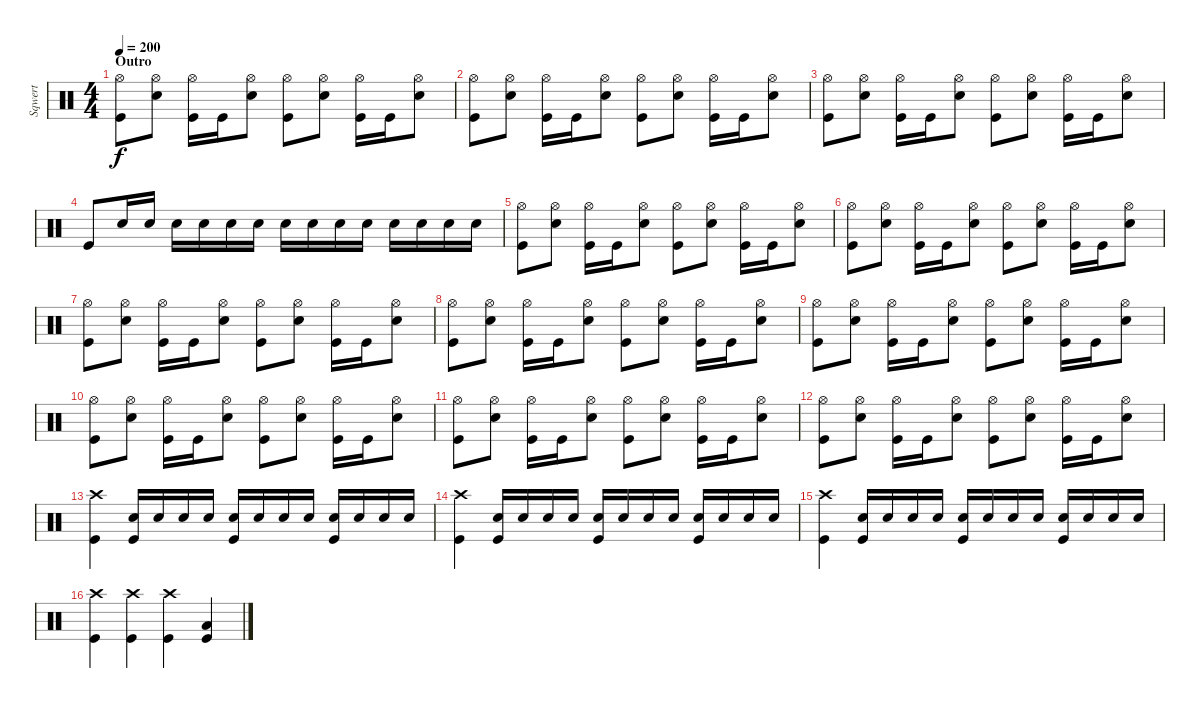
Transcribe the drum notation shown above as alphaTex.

\track ("Sqwert" "Sqwert") {instrument percussion}
\staff {score}
\articulation defaults
\ts (4 4)
\section ("" "Outro")
\tempo 200
\clef neutral
\ks c
("Hi-Hat (open)" "Kick (hit)").8{dy f} ("Hi-Hat (open)" "Snare (hit) 2").8 ("Hi-Hat (open)" "Kick (hit)").16 "Kick (hit)".16 ("Hi-Hat (open)" "Snare (hit) 2").8 ("Hi-Hat (open)" "Kick (hit)").8 ("Hi-Hat (open)" "Snare (hit) 2").8 ("Hi-Hat (open)" "Kick (hit)").16 "Kick (hit)".16 ("Hi-Hat (open)" "Snare (hit) 2").8 |
("Hi-Hat (open)" "Kick (hit)").8 ("Hi-Hat (open)" "Snare (hit) 2").8 ("Hi-Hat (open)" "Kick (hit)").16 "Kick (hit)".16 ("Hi-Hat (open)" "Snare (hit) 2").8 ("Hi-Hat (open)" "Kick (hit)").8 ("Hi-Hat (open)" "Snare (hit) 2").8 ("Hi-Hat (open)" "Kick (hit)").16 "Kick (hit)".16 ("Hi-Hat (open)" "Snare (hit) 2").8 |
("Hi-Hat (open)" "Kick (hit)").8 ("Hi-Hat (open)" "Snare (hit) 2").8 ("Hi-Hat (open)" "Kick (hit)").16 "Kick (hit)".16 ("Hi-Hat (open)" "Snare (hit) 2").8 ("Hi-Hat (open)" "Kick (hit)").8 ("Hi-Hat (open)" "Snare (hit) 2").8 ("Hi-Hat (open)" "Kick (hit)").16 "Kick (hit)".16 ("Hi-Hat (open)" "Snare (hit) 2").8 |
"Kick (hit)".8 "Snare (hit) 2".16 "Snare (hit) 2".16 "Snare (hit) 2".16 "Snare (hit) 2".16 "Snare (hit) 2".16 "Snare (hit) 2".16 "Snare (hit) 2".16 "Snare (hit) 2".16 "Snare (hit) 2".16 "Snare (hit) 2".16 "Snare (hit) 2".16 "Snare (hit) 2".16 "Snare (hit) 2".16 "Snare (hit) 2".16 |
("Hi-Hat (open)" "Kick (hit)").8 ("Hi-Hat (open)" "Snare (hit) 2").8 ("Hi-Hat (open)" "Kick (hit)").16 "Kick (hit)".16 ("Hi-Hat (open)" "Snare (hit) 2").8 ("Hi-Hat (open)" "Kick (hit)").8 ("Hi-Hat (open)" "Snare (hit) 2").8 ("Hi-Hat (open)" "Kick (hit)").16 "Kick (hit)".16 ("Hi-Hat (open)" "Snare (hit) 2").8 |
("Hi-Hat (open)" "Kick (hit)").8 ("Hi-Hat (open)" "Snare (hit) 2").8 ("Hi-Hat (open)" "Kick (hit)").16 "Kick (hit)".16 ("Hi-Hat (open)" "Snare (hit) 2").8 ("Hi-Hat (open)" "Kick (hit)").8 ("Hi-Hat (open)" "Snare (hit) 2").8 ("Hi-Hat (open)" "Kick (hit)").16 "Kick (hit)".16 ("Hi-Hat (open)" "Snare (hit) 2").8 |
("Hi-Hat (open)" "Kick (hit)").8 ("Hi-Hat (open)" "Snare (hit) 2").8 ("Hi-Hat (open)" "Kick (hit)").16 "Kick (hit)".16 ("Hi-Hat (open)" "Snare (hit) 2").8 ("Hi-Hat (open)" "Kick (hit)").8 ("Hi-Hat (open)" "Snare (hit) 2").8 ("Hi-Hat (open)" "Kick (hit)").16 "Kick (hit)".16 ("Hi-Hat (open)" "Snare (hit) 2").8 |
("Hi-Hat (open)" "Kick (hit)").8 ("Hi-Hat (open)" "Snare (hit) 2").8 ("Hi-Hat (open)" "Kick (hit)").16 "Kick (hit)".16 ("Hi-Hat (open)" "Snare (hit) 2").8 ("Hi-Hat (open)" "Kick (hit)").8 ("Hi-Hat (open)" "Snare (hit) 2").8 ("Hi-Hat (open)" "Kick (hit)").16 "Kick (hit)".16 ("Hi-Hat (open)" "Snare (hit) 2").8 |
("Hi-Hat (open)" "Kick (hit)").8 ("Hi-Hat (open)" "Snare (hit) 2").8 ("Hi-Hat (open)" "Kick (hit)").16 "Kick (hit)".16 ("Hi-Hat (open)" "Snare (hit) 2").8 ("Hi-Hat (open)" "Kick (hit)").8 ("Hi-Hat (open)" "Snare (hit) 2").8 ("Hi-Hat (open)" "Kick (hit)").16 "Kick (hit)".16 ("Hi-Hat (open)" "Snare (hit) 2").8 |
("Hi-Hat (open)" "Kick (hit)").8 ("Hi-Hat (open)" "Snare (hit) 2").8 ("Hi-Hat (open)" "Kick (hit)").16 "Kick (hit)".16 ("Hi-Hat (open)" "Snare (hit) 2").8 ("Hi-Hat (open)" "Kick (hit)").8 ("Hi-Hat (open)" "Snare (hit) 2").8 ("Hi-Hat (open)" "Kick (hit)").16 "Kick (hit)".16 ("Hi-Hat (open)" "Snare (hit) 2").8 |
("Hi-Hat (open)" "Kick (hit)").8 ("Hi-Hat (open)" "Snare (hit) 2").8 ("Hi-Hat (open)" "Kick (hit)").16 "Kick (hit)".16 ("Hi-Hat (open)" "Snare (hit) 2").8 ("Hi-Hat (open)" "Kick (hit)").8 ("Hi-Hat (open)" "Snare (hit) 2").8 ("Hi-Hat (open)" "Kick (hit)").16 "Kick (hit)".16 ("Hi-Hat (open)" "Snare (hit) 2").8 |
("Hi-Hat (open)" "Kick (hit)").8 ("Hi-Hat (open)" "Snare (hit) 2").8 ("Hi-Hat (open)" "Kick (hit)").16 "Kick (hit)".16 ("Hi-Hat (open)" "Snare (hit) 2").8 ("Hi-Hat (open)" "Kick (hit)").8 ("Hi-Hat (open)" "Snare (hit) 2").8 ("Hi-Hat (open)" "Kick (hit)").16 "Kick (hit)".16 ("Hi-Hat (open)" "Snare (hit) 2").8 |
("Crash high (hit)" "Kick (hit)").4 ("Snare (hit) 2" "Kick (hit)").16 "Snare (hit) 2".16 "Snare (hit) 2".16 "Snare (hit) 2".16 ("Snare (hit) 2" "Kick (hit)").16 "Snare (hit) 2".16 "Snare (hit) 2".16 "Snare (hit) 2".16 ("Snare (hit) 2" "Kick (hit)").16 "Snare (hit) 2".16 "Snare (hit) 2".16 "Snare (hit) 2".16 |
("Crash high (hit)" "Kick (hit)").4 ("Snare (hit) 2" "Kick (hit)").16 "Snare (hit) 2".16 "Snare (hit) 2".16 "Snare (hit) 2".16 ("Snare (hit) 2" "Kick (hit)").16 "Snare (hit) 2".16 "Snare (hit) 2".16 "Snare (hit) 2".16 ("Snare (hit) 2" "Kick (hit)").16 "Snare (hit) 2".16 "Snare (hit) 2".16 "Snare (hit) 2".16 |
("Crash high (hit)" "Kick (hit)").4 ("Snare (hit) 2" "Kick (hit)").16 "Snare (hit) 2".16 "Snare (hit) 2".16 "Snare (hit) 2".16 ("Snare (hit) 2" "Kick (hit)").16 "Snare (hit) 2".16 "Snare (hit) 2".16 "Snare (hit) 2".16 ("Snare (hit) 2" "Kick (hit)").16 "Snare (hit) 2".16 "Snare (hit) 2".16 "Snare (hit) 2".16 |
("Crash high (hit)" "Kick (hit)").4 ("Crash high (hit)" "Kick (hit)").4 ("Crash high (hit)" "Kick (hit)").4 ("Low Tom (hit)" "Kick (hit)").4
